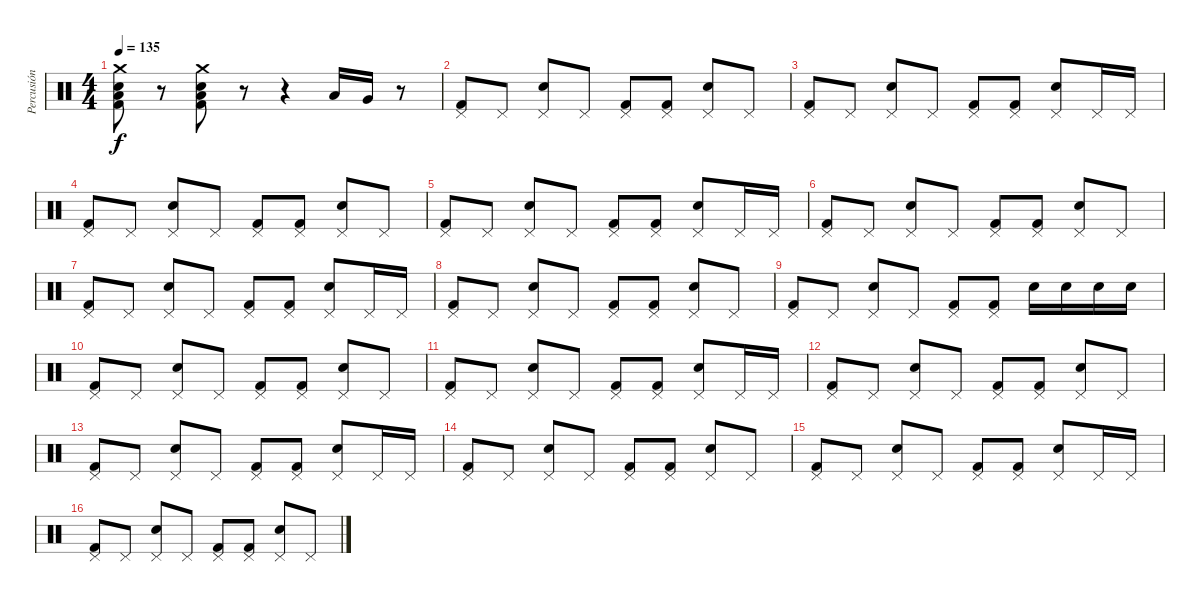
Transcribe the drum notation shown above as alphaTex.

\track ("Percusión" "Percusión") {instrument percussion}
\staff {score}
\articulation defaults
\ts (4 4)
\tempo 135
\clef neutral
\ks c
("Low Tom (hit)" "Kick (hit) 2" "Snare (hit) 2" "Crash medium (hit)").8{dy f} r.8 ("Low Tom (hit)" "Kick (hit) 2" "Snare (hit) 2" "Crash medium (hit)").8 r.8 r.4 "Low Tom (hit)".16 "Very Low Tom (hit)".16 r.8 |
("Kick (hit) 2" "Pedal Hi-Hat (hit)").8 "Pedal Hi-Hat (hit)".8 ("Snare (hit) 2" "Pedal Hi-Hat (hit)").8 "Pedal Hi-Hat (hit)".8 ("Kick (hit) 2" "Pedal Hi-Hat (hit)").8 ("Kick (hit) 2" "Pedal Hi-Hat (hit)").8 ("Snare (hit) 2" "Pedal Hi-Hat (hit)").8 "Pedal Hi-Hat (hit)".8 |
("Kick (hit) 2" "Pedal Hi-Hat (hit)").8 "Pedal Hi-Hat (hit)".8 ("Snare (hit) 2" "Pedal Hi-Hat (hit)").8 "Pedal Hi-Hat (hit)".8 ("Kick (hit) 2" "Pedal Hi-Hat (hit)").8 ("Kick (hit) 2" "Pedal Hi-Hat (hit)").8 ("Snare (hit) 2" "Pedal Hi-Hat (hit)").8 "Pedal Hi-Hat (hit)".16 "Pedal Hi-Hat (hit)".16 |
("Kick (hit) 2" "Pedal Hi-Hat (hit)").8 "Pedal Hi-Hat (hit)".8 ("Snare (hit) 2" "Pedal Hi-Hat (hit)").8 "Pedal Hi-Hat (hit)".8 ("Kick (hit) 2" "Pedal Hi-Hat (hit)").8 ("Kick (hit) 2" "Pedal Hi-Hat (hit)").8 ("Snare (hit) 2" "Pedal Hi-Hat (hit)").8 "Pedal Hi-Hat (hit)".8 |
("Kick (hit) 2" "Pedal Hi-Hat (hit)").8 "Pedal Hi-Hat (hit)".8 ("Snare (hit) 2" "Pedal Hi-Hat (hit)").8 "Pedal Hi-Hat (hit)".8 ("Kick (hit) 2" "Pedal Hi-Hat (hit)").8 ("Kick (hit) 2" "Pedal Hi-Hat (hit)").8 ("Snare (hit) 2" "Pedal Hi-Hat (hit)").8 "Pedal Hi-Hat (hit)".16 "Pedal Hi-Hat (hit)".16 |
("Kick (hit) 2" "Pedal Hi-Hat (hit)").8 "Pedal Hi-Hat (hit)".8 ("Snare (hit) 2" "Pedal Hi-Hat (hit)").8 "Pedal Hi-Hat (hit)".8 ("Kick (hit) 2" "Pedal Hi-Hat (hit)").8 ("Kick (hit) 2" "Pedal Hi-Hat (hit)").8 ("Snare (hit) 2" "Pedal Hi-Hat (hit)").8 "Pedal Hi-Hat (hit)".8 |
("Kick (hit) 2" "Pedal Hi-Hat (hit)").8 "Pedal Hi-Hat (hit)".8 ("Snare (hit) 2" "Pedal Hi-Hat (hit)").8 "Pedal Hi-Hat (hit)".8 ("Kick (hit) 2" "Pedal Hi-Hat (hit)").8 ("Kick (hit) 2" "Pedal Hi-Hat (hit)").8 ("Snare (hit) 2" "Pedal Hi-Hat (hit)").8 "Pedal Hi-Hat (hit)".16 "Pedal Hi-Hat (hit)".16 |
("Kick (hit) 2" "Pedal Hi-Hat (hit)").8 "Pedal Hi-Hat (hit)".8 ("Snare (hit) 2" "Pedal Hi-Hat (hit)").8 "Pedal Hi-Hat (hit)".8 ("Kick (hit) 2" "Pedal Hi-Hat (hit)").8 ("Kick (hit) 2" "Pedal Hi-Hat (hit)").8 ("Snare (hit) 2" "Pedal Hi-Hat (hit)").8 "Pedal Hi-Hat (hit)".8 |
("Kick (hit) 2" "Pedal Hi-Hat (hit)").8 "Pedal Hi-Hat (hit)".8 ("Snare (hit) 2" "Pedal Hi-Hat (hit)").8 "Pedal Hi-Hat (hit)".8 ("Kick (hit) 2" "Pedal Hi-Hat (hit)").8 ("Kick (hit) 2" "Pedal Hi-Hat (hit)").8 "Snare (hit) 2".16 "Snare (hit) 2".16 "Snare (hit) 2".16 "Snare (hit) 2".16 |
("Kick (hit) 2" "Pedal Hi-Hat (hit)").8 "Pedal Hi-Hat (hit)".8 ("Snare (hit) 2" "Pedal Hi-Hat (hit)").8 "Pedal Hi-Hat (hit)".8 ("Kick (hit) 2" "Pedal Hi-Hat (hit)").8 ("Kick (hit) 2" "Pedal Hi-Hat (hit)").8 ("Snare (hit) 2" "Pedal Hi-Hat (hit)").8 "Pedal Hi-Hat (hit)".8 |
("Kick (hit) 2" "Pedal Hi-Hat (hit)").8 "Pedal Hi-Hat (hit)".8 ("Snare (hit) 2" "Pedal Hi-Hat (hit)").8 "Pedal Hi-Hat (hit)".8 ("Kick (hit) 2" "Pedal Hi-Hat (hit)").8 ("Kick (hit) 2" "Pedal Hi-Hat (hit)").8 ("Snare (hit) 2" "Pedal Hi-Hat (hit)").8 "Pedal Hi-Hat (hit)".16 "Pedal Hi-Hat (hit)".16 |
("Kick (hit) 2" "Pedal Hi-Hat (hit)").8 "Pedal Hi-Hat (hit)".8 ("Snare (hit) 2" "Pedal Hi-Hat (hit)").8 "Pedal Hi-Hat (hit)".8 ("Kick (hit) 2" "Pedal Hi-Hat (hit)").8 ("Kick (hit) 2" "Pedal Hi-Hat (hit)").8 ("Snare (hit) 2" "Pedal Hi-Hat (hit)").8 "Pedal Hi-Hat (hit)".8 |
("Kick (hit) 2" "Pedal Hi-Hat (hit)").8 "Pedal Hi-Hat (hit)".8 ("Snare (hit) 2" "Pedal Hi-Hat (hit)").8 "Pedal Hi-Hat (hit)".8 ("Kick (hit) 2" "Pedal Hi-Hat (hit)").8 ("Kick (hit) 2" "Pedal Hi-Hat (hit)").8 ("Snare (hit) 2" "Pedal Hi-Hat (hit)").8 "Pedal Hi-Hat (hit)".16 "Pedal Hi-Hat (hit)".16 |
("Kick (hit) 2" "Pedal Hi-Hat (hit)").8 "Pedal Hi-Hat (hit)".8 ("Snare (hit) 2" "Pedal Hi-Hat (hit)").8 "Pedal Hi-Hat (hit)".8 ("Kick (hit) 2" "Pedal Hi-Hat (hit)").8 ("Kick (hit) 2" "Pedal Hi-Hat (hit)").8 ("Snare (hit) 2" "Pedal Hi-Hat (hit)").8 "Pedal Hi-Hat (hit)".8 |
("Kick (hit) 2" "Pedal Hi-Hat (hit)").8 "Pedal Hi-Hat (hit)".8 ("Snare (hit) 2" "Pedal Hi-Hat (hit)").8 "Pedal Hi-Hat (hit)".8 ("Kick (hit) 2" "Pedal Hi-Hat (hit)").8 ("Kick (hit) 2" "Pedal Hi-Hat (hit)").8 ("Snare (hit) 2" "Pedal Hi-Hat (hit)").8 "Pedal Hi-Hat (hit)".16 "Pedal Hi-Hat (hit)".16 |
("Kick (hit) 2" "Pedal Hi-Hat (hit)").8 "Pedal Hi-Hat (hit)".8 ("Snare (hit) 2" "Pedal Hi-Hat (hit)").8 "Pedal Hi-Hat (hit)".8 ("Kick (hit) 2" "Pedal Hi-Hat (hit)").8 ("Kick (hit) 2" "Pedal Hi-Hat (hit)").8 ("Snare (hit) 2" "Pedal Hi-Hat (hit)").8 "Pedal Hi-Hat (hit)".8
